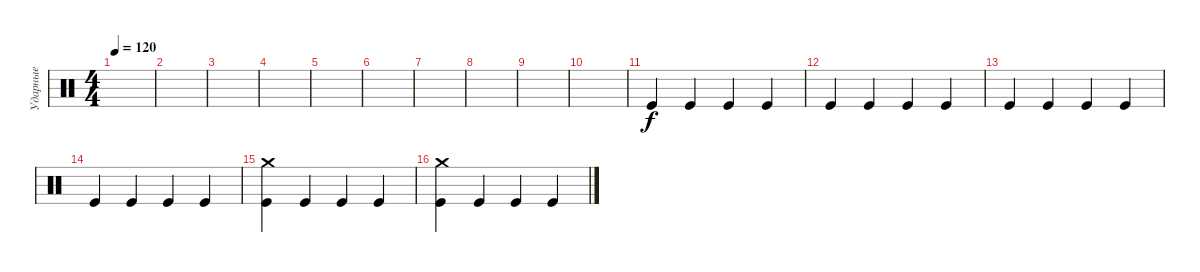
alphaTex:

\track ("Ударные" "Ударные") {instrument percussion}
\staff {score}
\articulation defaults
\ts (4 4)
\tempo 120
\clef neutral
\ks c
|
|
|
|
|
|
|
|
|
|
"Kick (hit)".4 "Kick (hit)".4 "Kick (hit)".4 "Kick (hit)".4 |
"Kick (hit)".4 "Kick (hit)".4 "Kick (hit)".4 "Kick (hit)".4 |
"Kick (hit)".4 "Kick (hit)".4 "Kick (hit)".4 "Kick (hit)".4 |
"Kick (hit)".4 "Kick (hit)".4 "Kick (hit)".4 "Kick (hit)".4 |
("Crash medium (hit)" "Kick (hit)").4 "Kick (hit)".4 "Kick (hit)".4 "Kick (hit)".4 |
("Crash medium (hit)" "Kick (hit)").4 "Kick (hit)".4 "Kick (hit)".4 "Kick (hit)".4
